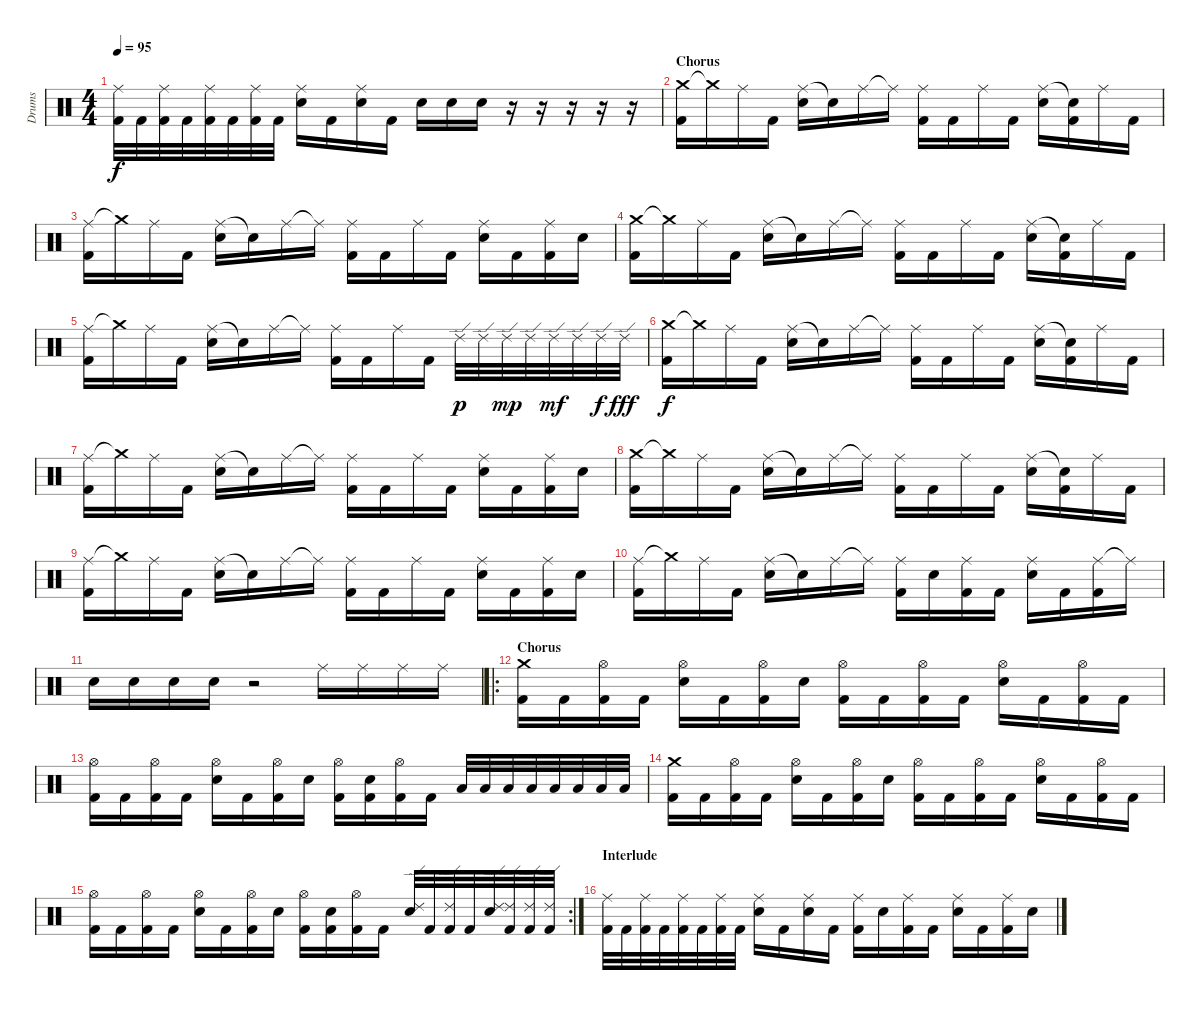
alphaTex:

\track ("Drums" "Drums") {instrument percussion}
\staff {score}
\articulation defaults
\ts (4 4)
\tempo 95
\clef neutral
\ks c
("Ride (middle)" "Kick (hit) 2").32{dy f balance 8} "Kick (hit) 2".32 ("Ride (middle)" "Kick (hit) 2").32 "Kick (hit) 2".32 ("Ride (middle)" "Kick (hit) 2").32 "Kick (hit) 2".32 ("Ride (middle)" "Kick (hit) 2").32 "Kick (hit) 2".32 ("Ride (middle)" "Electric Snare (hit)").16 "Kick (hit) 2".16 ("Ride (middle)" "Electric Snare (hit)").16 "Kick (hit) 2".16 "Electric Snare (hit)".16 "Electric Snare (hit)".16 "Electric Snare (hit)".16 r.16 r.16 r.16 r.16 r.16 |
\section ("" "Chorus")
("Crash medium (hit)" "Kick (hit) 2").16 "Crash medium (hit)"{t}.16 "Ride (middle)".16 "Kick (hit) 2".16 ("Ride (middle)" "Electric Snare (hit)").16 "Electric Snare (hit)"{t}.16 "Ride (middle)".16 "Ride (middle)"{t}.16 ("Ride (middle)" "Kick (hit) 2").16 "Kick (hit) 2".16 "Ride (middle)".16 "Kick (hit) 2".16 ("Ride (middle)" "Electric Snare (hit)").16 ("Electric Snare (hit)"{t} "Kick (hit) 2").16 "Ride (middle)".16 "Kick (hit) 2".16 |
("Ride (middle)" "Kick (hit) 2").16 "Crash medium (hit)"{t}.16 "Ride (middle)".16 "Kick (hit) 2".16 ("Ride (middle)" "Electric Snare (hit)").16 "Electric Snare (hit)"{t}.16 "Ride (middle)".16 "Ride (middle)"{t}.16 ("Ride (middle)" "Kick (hit) 2").16 "Kick (hit) 2".16 "Ride (middle)".16 "Kick (hit) 2".16 ("Ride (middle)" "Electric Snare (hit)").16 "Kick (hit) 2".16 ("Ride (middle)" "Kick (hit) 2").16 "Electric Snare (hit)".16 |
("Crash medium (hit)" "Kick (hit) 2").16 "Crash medium (hit)"{t}.16 "Ride (middle)".16 "Kick (hit) 2".16 ("Ride (middle)" "Electric Snare (hit)").16 "Electric Snare (hit)"{t}.16 "Ride (middle)".16 "Ride (middle)"{t}.16 ("Ride (middle)" "Kick (hit) 2").16 "Kick (hit) 2".16 "Ride (middle)".16 "Kick (hit) 2".16 ("Ride (middle)" "Electric Snare (hit)").16 ("Electric Snare (hit)"{t} "Kick (hit) 2").16 "Ride (middle)".16 "Kick (hit) 2".16 |
("Ride (middle)" "Kick (hit) 2").16 "Crash medium (hit)"{t}.16 "Ride (middle)".16 "Kick (hit) 2".16 ("Ride (middle)" "Electric Snare (hit)").16 "Electric Snare (hit)"{t}.16 "Ride (middle)".16 "Ride (middle)"{t}.16 ("Ride (middle)" "Kick (hit) 2").16 "Kick (hit) 2".16 "Ride (middle)".16 "Kick (hit) 2".16 "Ride (edge) 2".32{dy p} "Ride (edge) 2".32 "Ride (edge) 2".32{dy mp} "Ride (edge) 2".32 "Ride (edge) 2".32{dy mf} "Ride (edge) 2".32 "Ride (edge) 2".32{dy f} "Ride (edge) 2".32{dy fff} |
("Crash medium (hit)" "Kick (hit) 2").16{dy f} "Crash medium (hit)"{t}.16 "Ride (middle)".16 "Kick (hit) 2".16 ("Ride (middle)" "Electric Snare (hit)").16 "Electric Snare (hit)"{t}.16 "Ride (middle)".16 "Ride (middle)"{t}.16 ("Ride (middle)" "Kick (hit) 2").16 "Kick (hit) 2".16 "Ride (middle)".16 "Kick (hit) 2".16 ("Ride (middle)" "Electric Snare (hit)").16 ("Electric Snare (hit)"{t} "Kick (hit) 2").16 "Ride (middle)".16 "Kick (hit) 2".16 |
("Ride (middle)" "Kick (hit) 2").16 "Crash medium (hit)"{t}.16 "Ride (middle)".16 "Kick (hit) 2".16 ("Ride (middle)" "Electric Snare (hit)").16 "Electric Snare (hit)"{t}.16 "Ride (middle)".16 "Ride (middle)"{t}.16 ("Ride (middle)" "Kick (hit) 2").16 "Kick (hit) 2".16 "Ride (middle)".16 "Kick (hit) 2".16 ("Ride (middle)" "Electric Snare (hit)").16 "Kick (hit) 2".16 ("Ride (middle)" "Kick (hit) 2").16 "Electric Snare (hit)".16 |
("Crash medium (hit)" "Kick (hit) 2").16 "Crash medium (hit)"{t}.16 "Ride (middle)".16 "Kick (hit) 2".16 ("Ride (middle)" "Electric Snare (hit)").16 "Electric Snare (hit)"{t}.16 "Ride (middle)".16 "Ride (middle)"{t}.16 ("Ride (middle)" "Kick (hit) 2").16 "Kick (hit) 2".16 "Ride (middle)".16 "Kick (hit) 2".16 ("Ride (middle)" "Electric Snare (hit)").16 ("Electric Snare (hit)"{t} "Kick (hit) 2").16 "Ride (middle)".16 "Kick (hit) 2".16 |
("Ride (middle)" "Kick (hit) 2").16 "Crash medium (hit)"{t}.16 "Ride (middle)".16 "Kick (hit) 2".16 ("Ride (middle)" "Electric Snare (hit)").16 "Electric Snare (hit)"{t}.16 "Ride (middle)".16 "Ride (middle)"{t}.16 ("Ride (middle)" "Kick (hit) 2").16 "Kick (hit) 2".16 "Ride (middle)".16 "Kick (hit) 2".16 ("Ride (middle)" "Electric Snare (hit)").16 "Kick (hit) 2".16 ("Ride (middle)" "Kick (hit) 2").16 "Electric Snare (hit)".16 |
("Ride (middle)" "Kick (hit) 2").16 "Crash medium (hit)"{t}.16 "Ride (middle)".16 "Kick (hit) 2".16 ("Ride (middle)" "Electric Snare (hit)").16 "Electric Snare (hit)"{t}.16 "Ride (middle)".16 "Ride (middle)"{t}.16 ("Ride (middle)" "Kick (hit) 2").16 "Electric Snare (hit)".16 ("Ride (middle)" "Kick (hit) 2").16 "Kick (hit) 2".16 ("Ride (middle)" "Electric Snare (hit)").16 "Kick (hit) 2".16 ("Ride (middle)" "Kick (hit) 2").16 "Ride (middle)"{t}.16 |
"Electric Snare (hit)".16 "Electric Snare (hit)".16 "Electric Snare (hit)".16 "Electric Snare (hit)".16 r.2 "Ride (middle)".16 "Ride (middle)".16 "Ride (middle)".16 "Ride (middle)".16 |
\ro
\section ("" "Chorus")
("Crash medium (hit)" "Kick (hit) 2").16{balance 8} "Kick (hit) 2".16 ("Hi-Hat (open)" "Kick (hit) 2").16 "Kick (hit) 2".16 ("Hi-Hat (open)" "Electric Snare (hit)").16 "Kick (hit) 2".16 ("Hi-Hat (open)" "Kick (hit) 2").16 "Electric Snare (hit)".16 ("Hi-Hat (open)" "Kick (hit) 2").16 "Kick (hit) 2".16 ("Hi-Hat (open)" "Kick (hit) 2").16 "Kick (hit) 2".16 ("Hi-Hat (open)" "Electric Snare (hit)").16 "Kick (hit) 2".16 ("Hi-Hat (open)" "Kick (hit) 2").16 "Kick (hit) 2".16 |
("Hi-Hat (open)" "Kick (hit) 2").16 "Kick (hit) 2".16 ("Hi-Hat (open)" "Kick (hit) 2").16 "Kick (hit) 2".16 ("Hi-Hat (open)" "Electric Snare (hit)").16 "Kick (hit) 2".16 ("Hi-Hat (open)" "Kick (hit) 2").16 "Electric Snare (hit)".16 ("Hi-Hat (open)" "Kick (hit) 2").16 ("Electric Snare (hit)" "Kick (hit) 2").16 ("Hi-Hat (open)" "Kick (hit) 2").16 "Kick (hit) 2".16 "Low Floor Tom (hit)".32{balance 16} "Low Floor Tom (hit)".32{balance 14} "Low Floor Tom (hit)".32{balance 12} "Low Floor Tom (hit)".32{balance 10} "Low Floor Tom (hit)".32{balance 6} "Low Floor Tom (hit)".32{balance 6} "Low Floor Tom (hit)".32{balance 2} "Low Floor Tom (hit)".32{balance 0} |
("Crash medium (hit)" "Kick (hit) 2").16{balance 8} "Kick (hit) 2".16 ("Hi-Hat (open)" "Kick (hit) 2").16 "Kick (hit) 2".16 ("Hi-Hat (open)" "Electric Snare (hit)").16 "Kick (hit) 2".16 ("Hi-Hat (open)" "Kick (hit) 2").16 "Electric Snare (hit)".16 ("Hi-Hat (open)" "Kick (hit) 2").16 "Kick (hit) 2".16 ("Hi-Hat (open)" "Kick (hit) 2").16 "Kick (hit) 2".16 ("Hi-Hat (open)" "Electric Snare (hit)").16 "Kick (hit) 2".16 ("Hi-Hat (open)" "Kick (hit) 2").16 "Kick (hit) 2".16 |
\rc 2
("Hi-Hat (open)" "Kick (hit) 2").16 "Kick (hit) 2".16 ("Hi-Hat (open)" "Kick (hit) 2").16 "Kick (hit) 2".16 ("Hi-Hat (open)" "Electric Snare (hit)").16 "Kick (hit) 2".16 ("Hi-Hat (open)" "Kick (hit) 2").16 "Electric Snare (hit)".16 ("Hi-Hat (open)" "Kick (hit) 2").16 ("Electric Snare (hit)" "Kick (hit) 2").16 ("Hi-Hat (open)" "Kick (hit) 2").16 "Kick (hit) 2".16 ("Ride (edge) 2" "Electric Snare (hit)").32{balance 16} "Kick (hit) 2".32 ("Ride (edge) 2" "Kick (hit) 2").32 "Kick (hit) 2".32 ("Ride (edge) 2" "Electric Snare (hit)").32{balance 0} ("Ride (edge) 2" "Kick (hit) 2").32 ("Ride (edge) 2" "Kick (hit) 2").32 ("Ride (edge) 2" "Kick (hit) 2").32 |
\section ("" "Interlude")
("Ride (middle)" "Kick (hit) 2").32{balance 8} "Kick (hit) 2".32 ("Ride (middle)" "Kick (hit) 2").32 "Kick (hit) 2".32 ("Ride (middle)" "Kick (hit) 2").32 "Kick (hit) 2".32 ("Ride (middle)" "Kick (hit) 2").32 "Kick (hit) 2".32 ("Ride (middle)" "Electric Snare (hit)").16 "Kick (hit) 2".16 ("Ride (middle)" "Electric Snare (hit)").16 "Kick (hit) 2".16 ("Ride (middle)" "Kick (hit) 2").16 "Electric Snare (hit)".16 ("Ride (middle)" "Kick (hit) 2").16 "Kick (hit) 2".16 ("Ride (middle)" "Electric Snare (hit)").16 "Kick (hit) 2".16 ("Ride (middle)" "Kick (hit) 2").16 "Electric Snare (hit)".16
